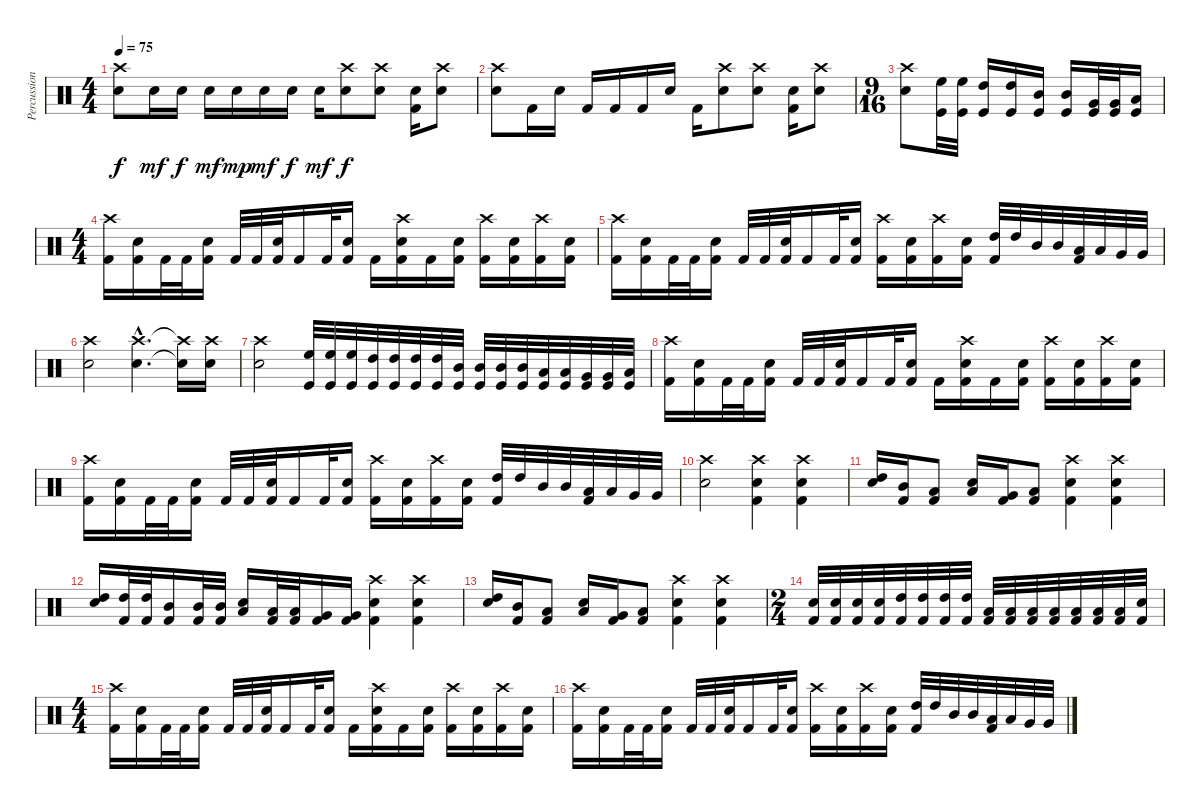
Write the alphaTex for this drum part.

\track ("Percussion" "Percussion") {instrument percussion}
\staff {score}
\articulation defaults
\ts (4 4)
\tempo 75
\clef neutral
\ks c
("Crash high (hit)" "Snare (hit) 2").8{dy f} "Snare (hit) 2".16{dy mf} "Snare (hit) 2".16{dy f} "Snare (hit) 2".16{dy mf} "Snare (hit) 2".16{dy mp} "Snare (hit) 2".16{dy mf} "Snare (hit) 2".16{dy f} "Snare (hit) 2".16{dy mf} ("Crash high (hit)" "Snare (hit) 2").8{dy f} ("Crash high (hit)" "Snare (hit) 2").8 ("Kick (hit) 2" "Snare (hit) 2").16 ("Crash high (hit)" "Snare (hit) 2").8 |
("Crash high (hit)" "Snare (hit) 2").8 "Kick (hit) 2".16 "Snare (hit) 2".16 "Kick (hit) 2".16 "Kick (hit) 2".16 "Kick (hit) 2".16 "Snare (hit) 2".16 "Kick (hit) 2".16 ("Crash high (hit)" "Snare (hit) 2").8 ("Crash high (hit)" "Snare (hit) 2").8 ("Kick (hit) 2" "Snare (hit) 2").16 ("Crash high (hit)" "Snare (hit) 2").8 |
\ts (9 16)
("Crash high (hit)" "Snare (hit) 2").8 ("High Floor Tom (hit)" "Kick (hit)").32 ("High Floor Tom (hit)" "Kick (hit)").32 ("High Tom (hit)" "Kick (hit)").16 ("High Tom (hit)" "Kick (hit)").16 ("Mid Tom (hit)" "Kick (hit)").16 ("Mid Tom (hit)" "Kick (hit)").16 ("Very Low Tom (hit)" "Kick (hit)").32 ("Very Low Tom (hit)" "Kick (hit)").32 ("Low Floor Tom (hit)" "Kick (hit)").16 |
\ts (4 4)
("Crash high (hit)" "Kick (hit) 2").16 ("Snare (hit) 2" "Kick (hit) 2").16 "Kick (hit) 2".32 "Kick (hit) 2".32 ("Snare (hit) 2" "Kick (hit) 2").16 "Kick (hit) 2".32 "Kick (hit) 2".32 ("Snare (hit) 2" "Kick (hit) 2").32 "Kick (hit) 2".16 "Kick (hit) 2".32 ("Snare (hit) 2" "Kick (hit) 2").16 "Kick (hit) 2".16 ("Crash high (hit)" "Snare (hit) 2" "Kick (hit) 2").16 "Kick (hit) 2".16 ("Snare (hit) 2" "Kick (hit) 2").16 ("Crash high (hit)" "Kick (hit) 2").16 ("Snare (hit) 2" "Kick (hit) 2").16 ("Crash high (hit)" "Kick (hit) 2").16 ("Snare (hit) 2" "Kick (hit) 2").16 |
("Crash high (hit)" "Kick (hit) 2").16 ("Snare (hit) 2" "Kick (hit) 2").16 "Kick (hit) 2".32 "Kick (hit) 2".32 ("Snare (hit) 2" "Kick (hit) 2").16 "Kick (hit) 2".32 "Kick (hit) 2".32 ("Snare (hit) 2" "Kick (hit) 2").32 "Kick (hit) 2".16 "Kick (hit) 2".32 ("Snare (hit) 2" "Kick (hit) 2").16 ("Crash high (hit)" "Kick (hit) 2").16 ("Snare (hit) 2" "Kick (hit) 2").16 ("Crash high (hit)" "Kick (hit) 2").16 ("Snare (hit) 2" "Kick (hit) 2").16 ("High Tom (hit)" "Kick (hit) 2").32 "High Tom (hit)".32 "Mid Tom (hit)".32 "Mid Tom (hit)".32 ("Low Tom (hit)" "Kick (hit) 2").32 "Low Tom (hit)".32 "Very Low Tom (hit)".32 "Very Low Tom (hit)".32 |
("Crash high (hit)" "Snare (hit) 2").2 ("Crash high (hit)"{hac} "Snare (hit) 2"{hac}).4{d} ("Crash high (hit)"{t} "Snare (hit) 2"{t}).16 ("Crash high (hit)" "Snare (hit) 2").16 |
("Crash high (hit)" "Snare (hit) 2").2 ("High Floor Tom (hit)" "Kick (hit)").32 ("High Floor Tom (hit)" "Kick (hit)").32 ("High Floor Tom (hit)" "Kick (hit)").32 ("High Tom (hit)" "Kick (hit)").32 ("High Tom (hit)" "Kick (hit)").32 ("High Tom (hit)" "Kick (hit)").32 ("High Tom (hit)" "Kick (hit)").32 ("Mid Tom (hit)" "Kick (hit)").32 ("Mid Tom (hit)" "Kick (hit)").32 ("Mid Tom (hit)" "Kick (hit)").32 ("Mid Tom (hit)" "Kick (hit)").32 ("Low Tom (hit)" "Kick (hit)").32 ("Low Tom (hit)" "Kick (hit)").32 ("Very Low Tom (hit)" "Kick (hit)").32 ("Very Low Tom (hit)" "Kick (hit)").32 ("Low Floor Tom (hit)" "Kick (hit)").32 |
("Crash high (hit)" "Kick (hit) 2").16 ("Snare (hit) 2" "Kick (hit) 2").16 "Kick (hit) 2".32 "Kick (hit) 2".32 ("Snare (hit) 2" "Kick (hit) 2").16 "Kick (hit) 2".32 "Kick (hit) 2".32 ("Snare (hit) 2" "Kick (hit) 2").32 "Kick (hit) 2".16 "Kick (hit) 2".32 ("Snare (hit) 2" "Kick (hit) 2").16 "Kick (hit) 2".16 ("Crash high (hit)" "Snare (hit) 2" "Kick (hit) 2").16 "Kick (hit) 2".16 ("Snare (hit) 2" "Kick (hit) 2").16 ("Crash high (hit)" "Kick (hit) 2").16 ("Snare (hit) 2" "Kick (hit) 2").16 ("Crash high (hit)" "Kick (hit) 2").16 ("Snare (hit) 2" "Kick (hit) 2").16 |
("Crash high (hit)" "Kick (hit) 2").16 ("Snare (hit) 2" "Kick (hit) 2").16 "Kick (hit) 2".32 "Kick (hit) 2".32 ("Snare (hit) 2" "Kick (hit) 2").16 "Kick (hit) 2".32 "Kick (hit) 2".32 ("Snare (hit) 2" "Kick (hit) 2").32 "Kick (hit) 2".16 "Kick (hit) 2".32 ("Snare (hit) 2" "Kick (hit) 2").16 ("Crash high (hit)" "Kick (hit) 2").16 ("Snare (hit) 2" "Kick (hit) 2").16 ("Crash high (hit)" "Kick (hit) 2").16 ("Snare (hit) 2" "Kick (hit) 2").16 ("High Tom (hit)" "Kick (hit) 2").32 "High Tom (hit)".32 "Mid Tom (hit)".32 "Mid Tom (hit)".32 ("Low Tom (hit)" "Kick (hit) 2").32 "Low Tom (hit)".32 "Very Low Tom (hit)".32 "Very Low Tom (hit)".32 |
("Snare (hit) 2" "Crash high (hit)").2 ("Crash high (hit)" "Snare (hit) 2" "Kick (hit) 2").4 ("Crash high (hit)" "Snare (hit) 2" "Kick (hit) 2").4 |
("High Tom (hit)" "Snare (hit) 2").16 ("Mid Tom (hit)" "Kick (hit) 2").16 ("Low Tom (hit)" "Kick (hit) 2").8 ("Low Tom (hit)" "Snare (hit) 2").16 ("Very Low Tom (hit)" "Kick (hit) 2").16 ("Low Floor Tom (hit)" "Kick (hit) 2").8 ("Crash high (hit)" "Snare (hit) 2" "Kick (hit) 2").4 ("Crash high (hit)" "Snare (hit) 2" "Kick (hit) 2").4 |
("High Tom (hit)" "Snare (hit) 2").16 ("High Tom (hit)" "Kick (hit) 2").32 ("High Tom (hit)" "Kick (hit) 2").32 ("Mid Tom (hit)" "Kick (hit) 2").16 ("Mid Tom (hit)" "Kick (hit) 2").32 ("Mid Tom (hit)" "Kick (hit) 2").32 ("Low Tom (hit)" "Snare (hit) 2").16 ("Low Tom (hit)" "Kick (hit) 2").32 ("Low Tom (hit)" "Kick (hit) 2").32 ("Very Low Tom (hit)" "Kick (hit) 2").16 ("Very Low Tom (hit)" "Kick (hit) 2").16 ("Crash high (hit)" "Snare (hit) 2" "Kick (hit) 2").4 ("Crash high (hit)" "Snare (hit) 2" "Kick (hit) 2").4 |
("High Tom (hit)" "Snare (hit) 2").16 ("Mid Tom (hit)" "Kick (hit) 2").16 ("Low Tom (hit)" "Kick (hit) 2").8 ("Low Tom (hit)" "Snare (hit) 2").16 ("Very Low Tom (hit)" "Kick (hit) 2").16 ("Low Floor Tom (hit)" "Kick (hit) 2").8 ("Crash high (hit)" "Snare (hit) 2" "Kick (hit) 2").4 ("Crash high (hit)" "Snare (hit) 2" "Kick (hit) 2").4 |
\ts (2 4)
("Snare (hit) 2" "Kick (hit) 2").32 ("Snare (hit) 2" "Kick (hit) 2").32 ("Snare (hit) 2" "Kick (hit) 2").32 ("Snare (hit) 2" "Kick (hit) 2").32 ("High Tom (hit)" "Kick (hit) 2").32 ("High Tom (hit)" "Kick (hit) 2").32 ("High Tom (hit)" "Kick (hit) 2").32 ("High Tom (hit)" "Kick (hit) 2").32 ("Low Tom (hit)" "Kick (hit) 2").32 ("Low Tom (hit)" "Kick (hit) 2").32 ("Low Tom (hit)" "Kick (hit) 2").32 ("Low Tom (hit)" "Kick (hit) 2").32 ("Low Floor Tom (hit)" "Kick (hit) 2").32 ("Low Floor Tom (hit)" "Kick (hit) 2").32 ("Low Floor Tom (hit)" "Kick (hit) 2").32 ("Snare (hit)" "Kick (hit) 2").32 |
\ts (4 4)
("Crash high (hit)" "Kick (hit) 2").16 ("Snare (hit) 2" "Kick (hit) 2").16 "Kick (hit) 2".32 "Kick (hit) 2".32 ("Snare (hit) 2" "Kick (hit) 2").16 "Kick (hit) 2".32 "Kick (hit) 2".32 ("Snare (hit) 2" "Kick (hit) 2").32 "Kick (hit) 2".16 "Kick (hit) 2".32 ("Snare (hit) 2" "Kick (hit) 2").16 "Kick (hit) 2".16 ("Crash high (hit)" "Snare (hit) 2" "Kick (hit) 2").16 "Kick (hit) 2".16 ("Snare (hit) 2" "Kick (hit) 2").16 ("Crash high (hit)" "Kick (hit) 2").16 ("Snare (hit) 2" "Kick (hit) 2").16 ("Crash high (hit)" "Kick (hit) 2").16 ("Snare (hit) 2" "Kick (hit) 2").16 |
("Crash high (hit)" "Kick (hit) 2").16 ("Snare (hit) 2" "Kick (hit) 2").16 "Kick (hit) 2".32 "Kick (hit) 2".32 ("Snare (hit) 2" "Kick (hit) 2").16 "Kick (hit) 2".32 "Kick (hit) 2".32 ("Snare (hit) 2" "Kick (hit) 2").32 "Kick (hit) 2".16 "Kick (hit) 2".32 ("Snare (hit) 2" "Kick (hit) 2").16 ("Crash high (hit)" "Kick (hit) 2").16 ("Snare (hit) 2" "Kick (hit) 2").16 ("Crash high (hit)" "Kick (hit) 2").16 ("Snare (hit) 2" "Kick (hit) 2").16 ("High Tom (hit)" "Kick (hit) 2").32 "High Tom (hit)".32 "Mid Tom (hit)".32 "Mid Tom (hit)".32 ("Low Tom (hit)" "Kick (hit) 2").32 "Low Tom (hit)".32 "Very Low Tom (hit)".32 "Very Low Tom (hit)".32
